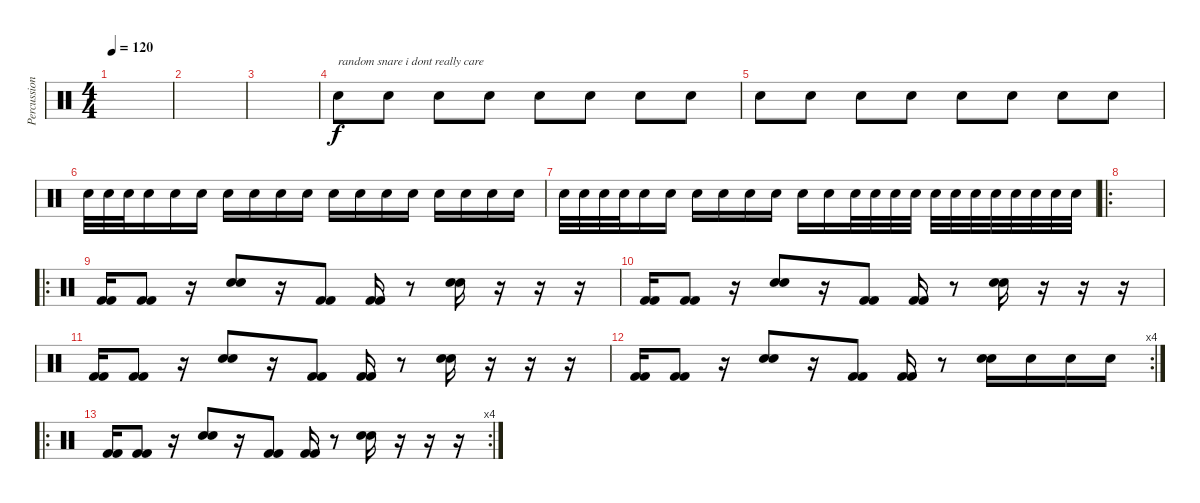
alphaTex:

\track ("Percussion" "Percussion") {instrument percussion}
\staff {score}
\articulation defaults
\ts (4 4)
\tempo 120
\clef neutral
\ks c
|
|
|
"Electric Snare (hit)".8{txt "random snare i dont really care" volume 7} "Snare (hit)"{x}.8 "Snare (hit)"{x}.8 "Electric Snare (hit)".8 "Snare (hit)"{x}.8 "Snare (hit)"{x}.8 "Snare (hit)"{x}.8 "Snare (hit)"{x}.8 |
"Electric Snare (hit)".8 "Snare (hit)"{x}.8 "Snare (hit)"{x}.8 "Electric Snare (hit)".8 "Electric Snare (hit)"{x}.8 "Electric Snare (hit)".8 "Electric Snare (hit)".8 "Electric Snare (hit)"{x}.8 |
"Electric Snare (hit)".32 "Electric Snare (hit)".32 "Electric Snare (hit)".32 "Electric Snare (hit)".16 "Electric Snare (hit)".16 "Electric Snare (hit)".16 "Electric Snare (hit)".16 "Electric Snare (hit)".16 "Electric Snare (hit)".16 "Electric Snare (hit)".16 "Electric Snare (hit)".16 "Electric Snare (hit)".16 "Electric Snare (hit)".16 "Electric Snare (hit)".16 "Electric Snare (hit)".16 "Electric Snare (hit)".16 "Electric Snare (hit)".16 "Electric Snare (hit)".16 |
"Electric Snare (hit)".32{volume 13} "Electric Snare (hit)".32 "Electric Snare (hit)".32 "Electric Snare (hit)".32 "Electric Snare (hit)".16 "Electric Snare (hit)".16 "Electric Snare (hit)".16 "Electric Snare (hit)".16 "Electric Snare (hit)".16 "Electric Snare (hit)".16 "Electric Snare (hit)".16 "Electric Snare (hit)".16 "Electric Snare (hit)".32 "Electric Snare (hit)".32 "Electric Snare (hit)".32 "Electric Snare (hit)".32 "Electric Snare (hit)".32 "Electric Snare (hit)".32 "Electric Snare (hit)".32 "Electric Snare (hit)".32 "Electric Snare (hit)".32 "Electric Snare (hit)".32 "Electric Snare (hit)".32 "Electric Snare (hit)".32 |
\ro
|
\ro
("Kick (hit) 2" "Kick (hit) 2").16{volume 16} ("Kick (hit) 2" "Kick (hit) 2").8 r.16 ("Electric Snare (hit)" "Electric Snare (hit)").8 r.16 ("Kick (hit) 2" "Kick (hit) 2").8 ("Kick (hit) 2" "Kick (hit) 2").16 r.8 ("Electric Snare (hit)" "Electric Snare (hit)").16 r.16 r.16 r.16 |
("Kick (hit) 2" "Kick (hit) 2").16 ("Kick (hit) 2" "Kick (hit) 2").8 r.16 ("Electric Snare (hit)" "Electric Snare (hit)").8 r.16 ("Kick (hit) 2" "Kick (hit) 2").8 ("Kick (hit) 2" "Kick (hit) 2").16 r.8 ("Electric Snare (hit)" "Electric Snare (hit)").16 r.16 r.16 r.16 |
("Kick (hit) 2" "Kick (hit) 2").16 ("Kick (hit) 2" "Kick (hit) 2").8 r.16 ("Electric Snare (hit)" "Electric Snare (hit)").8 r.16 ("Kick (hit) 2" "Kick (hit) 2").8 ("Kick (hit) 2" "Kick (hit) 2").16 r.8 ("Electric Snare (hit)" "Electric Snare (hit)").16 r.16 r.16 r.16 |
\rc 4
("Kick (hit) 2" "Kick (hit) 2").16 ("Kick (hit) 2" "Kick (hit) 2").8 r.16 ("Electric Snare (hit)" "Electric Snare (hit)").8 r.16 ("Kick (hit) 2" "Kick (hit) 2").8 ("Kick (hit) 2" "Kick (hit) 2").16 r.8 ("Electric Snare (hit)" "Electric Snare (hit)").16 "Electric Snare (hit)".16 "Electric Snare (hit)".16 "Electric Snare (hit)".16 |
\ro
\rc 4
("Kick (hit) 2" "Kick (hit) 2").16 ("Kick (hit) 2" "Kick (hit) 2").8 r.16 ("Electric Snare (hit)" "Electric Snare (hit)").8 r.16 ("Kick (hit) 2" "Kick (hit) 2").8 ("Kick (hit) 2" "Kick (hit) 2").16 r.8 ("Electric Snare (hit)" "Electric Snare (hit)").16 r.16 r.16 r.16
